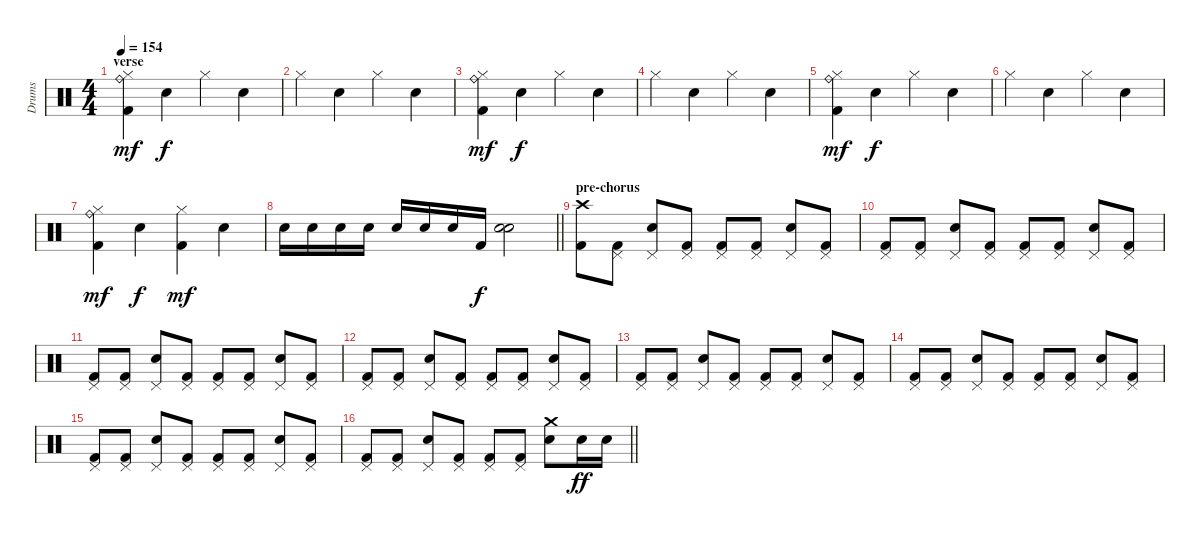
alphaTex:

\track ("Drums" "Drums") {instrument percussion}
\staff {score}
\articulation defaults
\ts (4 4)
\section ("" "verse")
\tempo 154
\clef neutral
\ks c
("Hi-Hat (closed)" "Ride (bell)" "Kick (hit) 2").4{dy mf} "Snare (hit) 2".4{dy f} "Hi-Hat (closed)".4 "Snare (hit) 2".4 |
"Hi-Hat (closed)".4 "Snare (hit) 2".4 "Hi-Hat (closed)".4 "Snare (hit) 2".4 |
("Hi-Hat (closed)" "Ride (bell)" "Kick (hit) 2").4{dy mf} "Snare (hit) 2".4{dy f} "Hi-Hat (closed)".4 "Snare (hit) 2".4 |
"Hi-Hat (closed)".4 "Snare (hit) 2".4 "Hi-Hat (closed)".4 "Snare (hit) 2".4 |
("Hi-Hat (closed)" "Ride (bell)" "Kick (hit) 2").4{dy mf} "Snare (hit) 2".4{dy f} "Hi-Hat (closed)".4 "Snare (hit) 2".4 |
"Hi-Hat (closed)".4 "Snare (hit) 2".4 "Hi-Hat (closed)".4 "Snare (hit) 2".4 |
("Hi-Hat (closed)" "Ride (bell)" "Kick (hit) 2").4{dy mf} "Snare (hit) 2".4{dy f} ("Hi-Hat (closed)" "Kick (hit) 2").4{dy mf} "Snare (hit) 2".4 |
\barLineRight lightlight "Snare (hit) 2".16 "Snare (hit) 2".16 "Snare (hit) 2".16 "Snare (hit) 2".16 "Snare (hit) 2".16 "Snare (hit) 2".16 "Snare (hit) 2".16 "Kick (hit) 2".16{dy f}
("Snare (hit) 2" "Snare (hit) 2").2 |
\section ("" "pre-chorus")
("Crash high (hit)" "Kick (hit) 2").8 ("Pedal Hi-Hat (hit)" "Kick (hit) 2").8 ("Pedal Hi-Hat (hit)" "Snare (hit) 2").8 ("Pedal Hi-Hat (hit)" "Kick (hit) 2").8 ("Pedal Hi-Hat (hit)" "Kick (hit) 2").8 ("Pedal Hi-Hat (hit)" "Kick (hit) 2").8 ("Pedal Hi-Hat (hit)" "Snare (hit) 2").8 ("Pedal Hi-Hat (hit)" "Kick (hit) 2").8 |
("Pedal Hi-Hat (hit)" "Kick (hit) 2").8 ("Pedal Hi-Hat (hit)" "Kick (hit) 2").8 ("Pedal Hi-Hat (hit)" "Snare (hit) 2").8 ("Pedal Hi-Hat (hit)" "Kick (hit) 2").8 ("Pedal Hi-Hat (hit)" "Kick (hit) 2").8 ("Pedal Hi-Hat (hit)" "Kick (hit) 2").8 ("Pedal Hi-Hat (hit)" "Snare (hit) 2").8 ("Pedal Hi-Hat (hit)" "Kick (hit) 2").8 |
("Pedal Hi-Hat (hit)" "Kick (hit) 2").8 ("Pedal Hi-Hat (hit)" "Kick (hit) 2").8 ("Pedal Hi-Hat (hit)" "Snare (hit) 2").8 ("Pedal Hi-Hat (hit)" "Kick (hit) 2").8 ("Pedal Hi-Hat (hit)" "Kick (hit) 2").8 ("Pedal Hi-Hat (hit)" "Kick (hit) 2").8 ("Pedal Hi-Hat (hit)" "Snare (hit) 2").8 ("Pedal Hi-Hat (hit)" "Kick (hit) 2").8 |
("Pedal Hi-Hat (hit)" "Kick (hit) 2").8 ("Pedal Hi-Hat (hit)" "Kick (hit) 2").8 ("Pedal Hi-Hat (hit)" "Snare (hit) 2").8 ("Pedal Hi-Hat (hit)" "Kick (hit) 2").8 ("Pedal Hi-Hat (hit)" "Kick (hit) 2").8 ("Pedal Hi-Hat (hit)" "Kick (hit) 2").8 ("Pedal Hi-Hat (hit)" "Snare (hit) 2").8 ("Pedal Hi-Hat (hit)" "Kick (hit) 2").8 |
("Pedal Hi-Hat (hit)" "Kick (hit) 2").8 ("Pedal Hi-Hat (hit)" "Kick (hit) 2").8 ("Pedal Hi-Hat (hit)" "Snare (hit) 2").8 ("Pedal Hi-Hat (hit)" "Kick (hit) 2").8 ("Pedal Hi-Hat (hit)" "Kick (hit) 2").8 ("Pedal Hi-Hat (hit)" "Kick (hit) 2").8 ("Pedal Hi-Hat (hit)" "Snare (hit) 2").8 ("Pedal Hi-Hat (hit)" "Kick (hit) 2").8 |
("Pedal Hi-Hat (hit)" "Kick (hit) 2").8 ("Pedal Hi-Hat (hit)" "Kick (hit) 2").8 ("Pedal Hi-Hat (hit)" "Snare (hit) 2").8 ("Pedal Hi-Hat (hit)" "Kick (hit) 2").8 ("Pedal Hi-Hat (hit)" "Kick (hit) 2").8 ("Pedal Hi-Hat (hit)" "Kick (hit) 2").8 ("Pedal Hi-Hat (hit)" "Snare (hit) 2").8 ("Pedal Hi-Hat (hit)" "Kick (hit) 2").8 |
("Pedal Hi-Hat (hit)" "Kick (hit) 2").8 ("Pedal Hi-Hat (hit)" "Kick (hit) 2").8 ("Pedal Hi-Hat (hit)" "Snare (hit) 2").8 ("Pedal Hi-Hat (hit)" "Kick (hit) 2").8 ("Pedal Hi-Hat (hit)" "Kick (hit) 2").8 ("Pedal Hi-Hat (hit)" "Kick (hit) 2").8 ("Pedal Hi-Hat (hit)" "Snare (hit) 2").8 ("Pedal Hi-Hat (hit)" "Kick (hit) 2").8 |
\barLineRight lightlight
("Pedal Hi-Hat (hit)" "Kick (hit) 2").8 ("Pedal Hi-Hat (hit)" "Kick (hit) 2").8 ("Pedal Hi-Hat (hit)" "Snare (hit) 2").8 ("Pedal Hi-Hat (hit)" "Kick (hit) 2").8 ("Pedal Hi-Hat (hit)" "Kick (hit) 2").8 ("Pedal Hi-Hat (hit)" "Kick (hit) 2").8 ("Crash medium (hit)" "Snare (hit) 2").8 "Snare (hit) 2".16{dy ff} "Snare (hit) 2".16
